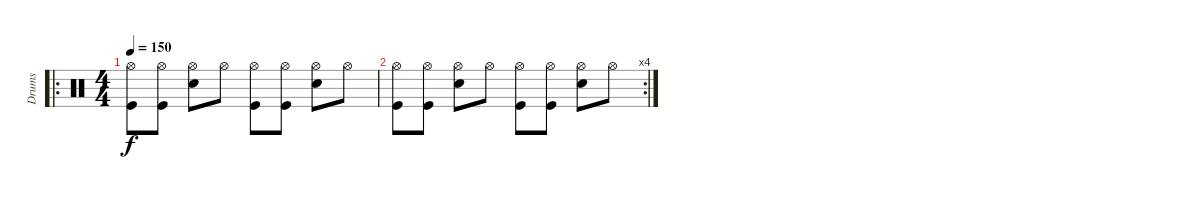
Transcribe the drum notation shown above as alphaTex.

\track ("Drums" "Drums") {instrument percussion}
\staff {score}
\articulation defaults
\ro
\ts (4 4)
\tempo 150
\clef neutral
\ks c
("Hi-Hat (open)" "Kick (hit)").8{dy f} ("Hi-Hat (open)" "Kick (hit)").8 ("Hi-Hat (open)" "Snare (hit) 2").8 "Hi-Hat (open)".8 ("Hi-Hat (open)" "Kick (hit)").8 ("Hi-Hat (open)" "Kick (hit)").8 ("Hi-Hat (open)" "Snare (hit) 2").8 "Hi-Hat (open)".8 |
\rc 4
("Hi-Hat (open)" "Kick (hit)").8 ("Hi-Hat (open)" "Kick (hit)").8 ("Hi-Hat (open)" "Snare (hit) 2").8 "Hi-Hat (open)".8 ("Hi-Hat (open)" "Kick (hit)").8 ("Hi-Hat (open)" "Kick (hit)").8 ("Hi-Hat (open)" "Snare (hit) 2").8 "Hi-Hat (open)".8
